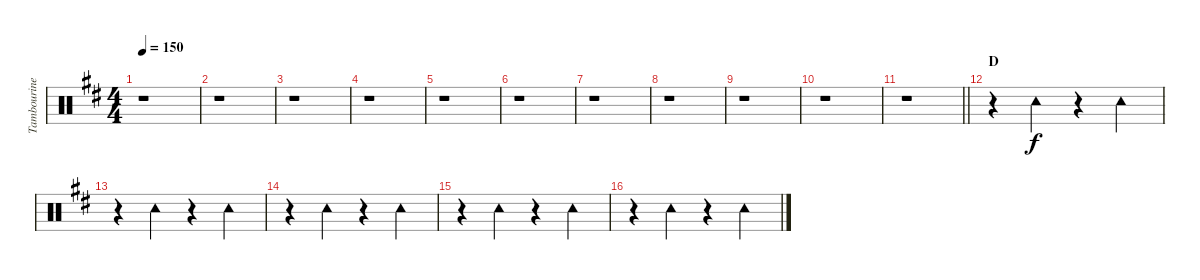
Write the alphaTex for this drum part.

\track ("Tambourine" "Tambourine") {instrument percussion}
\staff {score}
\articulation defaults
\ts (4 4)
\tempo 150
\clef neutral
\ks d
r.1{dy f} |
r.1 |
r.1 |
r.1 |
r.1 |
r.1 |
r.1 |
r.1 |
r.1 |
r.1 |
\barLineRight lightlight
r.1 |
\section ("" "D")
r.4 "Tambourine (hit)".4 r.4 "Tambourine (hit)".4 |
r.4 "Tambourine (hit)".4 r.4 "Tambourine (hit)".4 |
r.4 "Tambourine (hit)".4 r.4 "Tambourine (hit)".4 |
r.4 "Tambourine (hit)".4 r.4 "Tambourine (hit)".4 |
r.4 "Tambourine (hit)".4 r.4 "Tambourine (hit)".4
